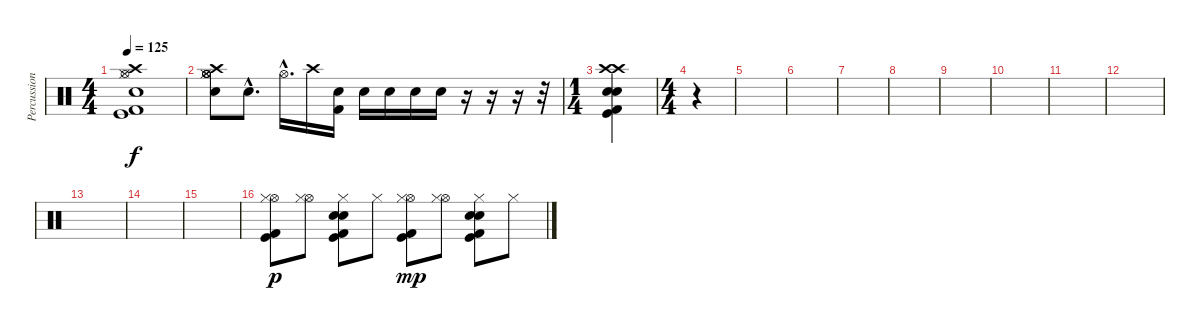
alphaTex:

\track ("Percussion" "Percussion") {instrument percussion}
\staff {score}
\articulation defaults
\ts (4 4)
\tempo 125
\clef neutral
\ks c
("Crash high (hit)" "Hi-Hat (open)" "Electric Snare (hit)" "Kick (hit)" "Kick (hit) 2" "Hi-Hat (closed)").1{dy f} |
("Hi-Hat (open)" "Hi-Hat (open)" "Hi-Hat (open)" "Electric Snare (hit)" "Crash high (hit)" "Hi-Hat (closed)").8 "Electric Snare (hit)"{hac}.8{d} "Hi-Hat (open)"{hac}.16{d} "Crash high (hit)".16 ("Electric Snare (hit)" "Kick (hit) 2").16 "Electric Snare (hit)".16 "Electric Snare (hit)".16 "Electric Snare (hit)".16 "Electric Snare (hit)".16 r.16 r.16 r.16 r.32 |
\ts (1 4)
("Crash high (hit)" "Crash high (hit)" "Electric Snare (hit)" "Electric Snare (hit)" "Kick (hit)" "Kick (hit) 2").4 |
\ts (4 4)
r.4 |
|
|
|
|
|
|
|
|
|
|
|
("Hi-Hat (open)" "Kick (hit)" "Kick (hit) 2" "Hi-Hat (closed)").8{dy p} ("Hi-Hat (open)" "Hi-Hat (closed)").8 ("Electric Snare (hit)" "Electric Snare (hit)" "Kick (hit)" "Kick (hit) 2" "Hi-Hat (closed)").8 "Hi-Hat (closed)".8 ("Hi-Hat (open)" "Kick (hit)" "Kick (hit) 2" "Hi-Hat (closed)").8{dy mp} ("Hi-Hat (open)" "Hi-Hat (closed)").8 ("Electric Snare (hit)" "Electric Snare (hit)" "Kick (hit)" "Kick (hit) 2" "Hi-Hat (closed)").8 "Hi-Hat (closed)".8
